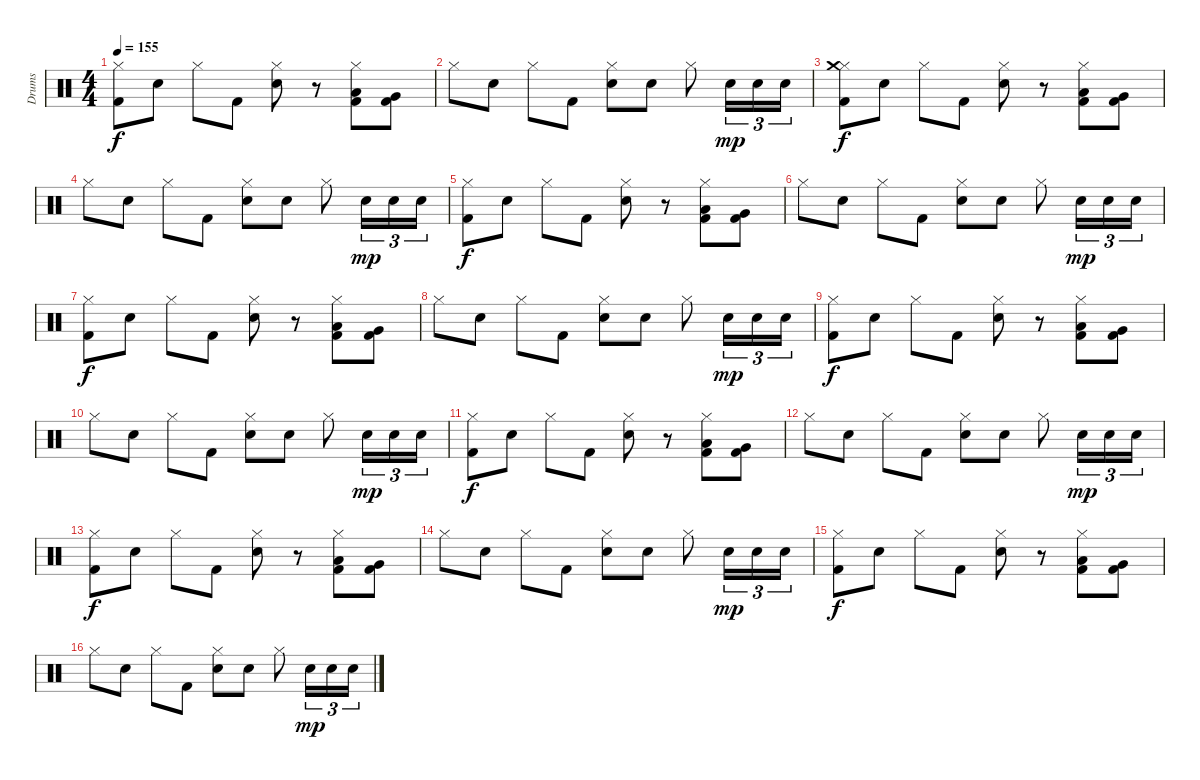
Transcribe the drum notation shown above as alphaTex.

\track ("Drums" "Drums") {instrument percussion}
\staff {score}
\articulation defaults
\ts (4 4)
\tempo 155
\clef neutral
\ks c
("Hi-Hat (closed)" "Kick (hit) 2").8{dy f} "Electric Snare (hit)".8 "Hi-Hat (closed)".8 "Kick (hit) 2".8 ("Hi-Hat (closed)" "Electric Snare (hit)").8 r.8 ("Hi-Hat (closed)" "Low Tom (hit)" "Kick (hit) 2").8 ("Very Low Tom (hit)" "Kick (hit) 2").8 |
"Hi-Hat (closed)".8 "Electric Snare (hit)".8 "Hi-Hat (closed)".8 "Kick (hit) 2".8 ("Hi-Hat (closed)" "Electric Snare (hit)").8 "Electric Snare (hit)".8 "Hi-Hat (closed)".8 "Electric Snare (hit)".16{tu (3 2) dy mp} "Electric Snare (hit)".16{tu (3 2)} "Electric Snare (hit)".16{tu (3 2)} |
("Hi-Hat (closed)" "Crash medium (hit)" "Kick (hit) 2").8{dy f} "Electric Snare (hit)".8 "Hi-Hat (closed)".8 "Kick (hit) 2".8 ("Hi-Hat (closed)" "Electric Snare (hit)").8 r.8 ("Hi-Hat (closed)" "Low Tom (hit)" "Kick (hit) 2").8 ("Very Low Tom (hit)" "Kick (hit) 2").8 |
"Hi-Hat (closed)".8 "Electric Snare (hit)".8 "Hi-Hat (closed)".8 "Kick (hit) 2".8 ("Hi-Hat (closed)" "Electric Snare (hit)").8 "Electric Snare (hit)".8 "Hi-Hat (closed)".8 "Electric Snare (hit)".16{tu (3 2) dy mp} "Electric Snare (hit)".16{tu (3 2)} "Electric Snare (hit)".16{tu (3 2)} |
("Hi-Hat (closed)" "Kick (hit) 2").8{dy f} "Electric Snare (hit)".8 "Hi-Hat (closed)".8 "Kick (hit) 2".8 ("Hi-Hat (closed)" "Electric Snare (hit)").8 r.8 ("Hi-Hat (closed)" "Low Tom (hit)" "Kick (hit) 2").8 ("Very Low Tom (hit)" "Kick (hit) 2").8 |
"Hi-Hat (closed)".8 "Electric Snare (hit)".8 "Hi-Hat (closed)".8 "Kick (hit) 2".8 ("Hi-Hat (closed)" "Electric Snare (hit)").8 "Electric Snare (hit)".8 "Hi-Hat (closed)".8 "Electric Snare (hit)".16{tu (3 2) dy mp} "Electric Snare (hit)".16{tu (3 2)} "Electric Snare (hit)".16{tu (3 2)} |
("Hi-Hat (closed)" "Kick (hit) 2").8{dy f} "Electric Snare (hit)".8 "Hi-Hat (closed)".8 "Kick (hit) 2".8 ("Hi-Hat (closed)" "Electric Snare (hit)").8 r.8 ("Hi-Hat (closed)" "Low Tom (hit)" "Kick (hit) 2").8 ("Very Low Tom (hit)" "Kick (hit) 2").8 |
"Hi-Hat (closed)".8 "Electric Snare (hit)".8 "Hi-Hat (closed)".8 "Kick (hit) 2".8 ("Hi-Hat (closed)" "Electric Snare (hit)").8 "Electric Snare (hit)".8 "Hi-Hat (closed)".8 "Electric Snare (hit)".16{tu (3 2) dy mp} "Electric Snare (hit)".16{tu (3 2)} "Electric Snare (hit)".16{tu (3 2)} |
("Hi-Hat (closed)" "Kick (hit) 2").8{dy f} "Electric Snare (hit)".8 "Hi-Hat (closed)".8 "Kick (hit) 2".8 ("Hi-Hat (closed)" "Electric Snare (hit)").8 r.8 ("Hi-Hat (closed)" "Low Tom (hit)" "Kick (hit) 2").8 ("Very Low Tom (hit)" "Kick (hit) 2").8 |
"Hi-Hat (closed)".8 "Electric Snare (hit)".8 "Hi-Hat (closed)".8 "Kick (hit) 2".8 ("Hi-Hat (closed)" "Electric Snare (hit)").8 "Electric Snare (hit)".8 "Hi-Hat (closed)".8 "Electric Snare (hit)".16{tu (3 2) dy mp} "Electric Snare (hit)".16{tu (3 2)} "Electric Snare (hit)".16{tu (3 2)} |
("Hi-Hat (closed)" "Kick (hit) 2").8{dy f} "Electric Snare (hit)".8 "Hi-Hat (closed)".8 "Kick (hit) 2".8 ("Hi-Hat (closed)" "Electric Snare (hit)").8 r.8 ("Hi-Hat (closed)" "Low Tom (hit)" "Kick (hit) 2").8 ("Very Low Tom (hit)" "Kick (hit) 2").8 |
"Hi-Hat (closed)".8 "Electric Snare (hit)".8 "Hi-Hat (closed)".8 "Kick (hit) 2".8 ("Hi-Hat (closed)" "Electric Snare (hit)").8 "Electric Snare (hit)".8 "Hi-Hat (closed)".8 "Electric Snare (hit)".16{tu (3 2) dy mp} "Electric Snare (hit)".16{tu (3 2)} "Electric Snare (hit)".16{tu (3 2)} |
("Hi-Hat (closed)" "Kick (hit) 2").8{dy f} "Electric Snare (hit)".8 "Hi-Hat (closed)".8 "Kick (hit) 2".8 ("Hi-Hat (closed)" "Electric Snare (hit)").8 r.8 ("Hi-Hat (closed)" "Low Tom (hit)" "Kick (hit) 2").8 ("Very Low Tom (hit)" "Kick (hit) 2").8 |
"Hi-Hat (closed)".8 "Electric Snare (hit)".8 "Hi-Hat (closed)".8 "Kick (hit) 2".8 ("Hi-Hat (closed)" "Electric Snare (hit)").8 "Electric Snare (hit)".8 "Hi-Hat (closed)".8 "Electric Snare (hit)".16{tu (3 2) dy mp} "Electric Snare (hit)".16{tu (3 2)} "Electric Snare (hit)".16{tu (3 2)} |
("Hi-Hat (closed)" "Kick (hit) 2").8{dy f} "Electric Snare (hit)".8 "Hi-Hat (closed)".8 "Kick (hit) 2".8 ("Hi-Hat (closed)" "Electric Snare (hit)").8 r.8 ("Hi-Hat (closed)" "Low Tom (hit)" "Kick (hit) 2").8 ("Very Low Tom (hit)" "Kick (hit) 2").8 |
"Hi-Hat (closed)".8 "Electric Snare (hit)".8 "Hi-Hat (closed)".8 "Kick (hit) 2".8 ("Hi-Hat (closed)" "Electric Snare (hit)").8 "Electric Snare (hit)".8 "Hi-Hat (closed)".8 "Electric Snare (hit)".16{tu (3 2) dy mp} "Electric Snare (hit)".16{tu (3 2)} "Electric Snare (hit)".16{tu (3 2)}
